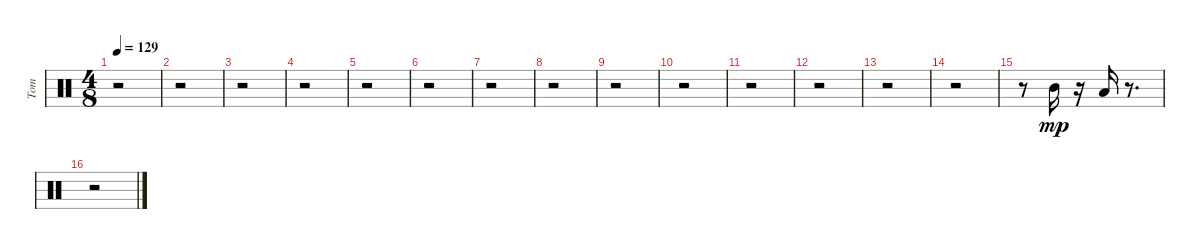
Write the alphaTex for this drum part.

\track ("Tom" "Tom") {instrument percussion}
\staff {score}
\articulation defaults
\ts (4 8)
\tempo 129
\clef neutral
\ks c
r.2{dy mp} |
r.2 |
r.2 |
r.2 |
r.2 |
r.2 |
r.2 |
r.2 |
r.2 |
r.2 |
r.2 |
r.2 |
r.2 |
r.2 |
r.8 "Mid Tom (hit)".16 r.16 "Low Tom (hit)".16 r.8{d} |
r.2
